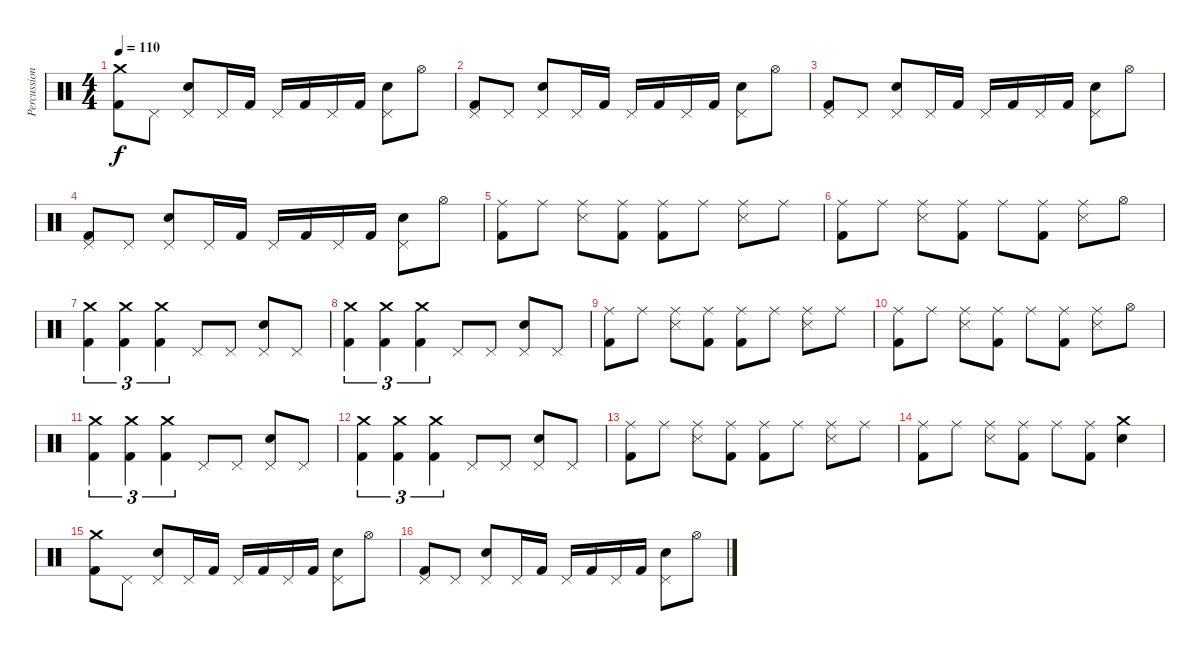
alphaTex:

\track ("Percussion" "Percussion") {instrument percussion}
\staff {score}
\articulation defaults
\ts (4 4)
\tempo 110
\clef neutral
\ks c
("Crash medium (hit)" "Kick (hit) 2").8{dy f} "Pedal Hi-Hat (hit)".8 ("Pedal Hi-Hat (hit)" "Electric Snare (hit)").8 "Pedal Hi-Hat (hit)".16 "Kick (hit) 2".16 "Pedal Hi-Hat (hit)".16 "Kick (hit) 2".16 "Pedal Hi-Hat (hit)".16 "Kick (hit) 2".16 ("Pedal Hi-Hat (hit)" "Electric Snare (hit)").8 "Hi-Hat (open)".8 |
("Pedal Hi-Hat (hit)" "Kick (hit) 2").8 "Pedal Hi-Hat (hit)".8 ("Pedal Hi-Hat (hit)" "Electric Snare (hit)").8 "Pedal Hi-Hat (hit)".16 "Kick (hit) 2".16 "Pedal Hi-Hat (hit)".16 "Kick (hit) 2".16 "Pedal Hi-Hat (hit)".16 "Kick (hit) 2".16 ("Pedal Hi-Hat (hit)" "Electric Snare (hit)").8 "Hi-Hat (open)".8 |
("Pedal Hi-Hat (hit)" "Kick (hit) 2").8 "Pedal Hi-Hat (hit)".8 ("Pedal Hi-Hat (hit)" "Electric Snare (hit)").8 "Pedal Hi-Hat (hit)".16 "Kick (hit) 2".16 "Pedal Hi-Hat (hit)".16 "Kick (hit) 2".16 "Pedal Hi-Hat (hit)".16 "Kick (hit) 2".16 ("Pedal Hi-Hat (hit)" "Electric Snare (hit)").8 "Hi-Hat (open)".8 |
("Pedal Hi-Hat (hit)" "Kick (hit) 2").8 "Pedal Hi-Hat (hit)".8 ("Pedal Hi-Hat (hit)" "Electric Snare (hit)").8 "Pedal Hi-Hat (hit)".16 "Kick (hit) 2".16 "Pedal Hi-Hat (hit)".16 "Kick (hit) 2".16 "Pedal Hi-Hat (hit)".16 "Kick (hit) 2".16 ("Pedal Hi-Hat (hit)" "Electric Snare (hit)").8 "Hi-Hat (open)".8 |
("Ride (middle)" "Kick (hit) 2").8 "Ride (middle)".8 ("Ride (middle)" "Snare (side stick) 3").8 ("Ride (middle)" "Kick (hit) 2").8 ("Ride (middle)" "Kick (hit) 2").8 "Ride (middle)".8 ("Ride (middle)" "Snare (side stick) 3").8 "Ride (middle)".8 |
("Ride (middle)" "Kick (hit) 2").8 "Ride (middle)".8 ("Ride (middle)" "Snare (side stick) 3").8 ("Ride (middle)" "Kick (hit) 2").8 "Ride (middle)".8 ("Ride (middle)" "Kick (hit) 2").8 ("Ride (middle)" "Snare (side stick) 3").8 "Hi-Hat (open)".8 |
("Crash medium (hit)" "Kick (hit) 2").4{tu (3 2)} ("Crash medium (hit)" "Kick (hit) 2").4{tu (3 2)} ("Crash medium (hit)" "Kick (hit) 2").4{tu (3 2)} "Pedal Hi-Hat (hit)".8 "Pedal Hi-Hat (hit)".8 ("Pedal Hi-Hat (hit)" "Snare (hit) 2").8 "Pedal Hi-Hat (hit)".8 |
("Crash medium (hit)" "Kick (hit) 2").4{tu (3 2)} ("Crash medium (hit)" "Kick (hit) 2").4{tu (3 2)} ("Crash medium (hit)" "Kick (hit) 2").4{tu (3 2)} "Pedal Hi-Hat (hit)".8 "Pedal Hi-Hat (hit)".8 ("Pedal Hi-Hat (hit)" "Snare (hit) 2").8 "Pedal Hi-Hat (hit)".8 |
("Ride (middle)" "Kick (hit) 2").8 "Ride (middle)".8 ("Ride (middle)" "Snare (side stick) 3").8 ("Ride (middle)" "Kick (hit) 2").8 ("Ride (middle)" "Kick (hit) 2").8 "Ride (middle)".8 ("Ride (middle)" "Snare (side stick) 3").8 "Ride (middle)".8 |
("Ride (middle)" "Kick (hit) 2").8 "Ride (middle)".8 ("Ride (middle)" "Snare (side stick) 3").8 ("Ride (middle)" "Kick (hit) 2").8 "Ride (middle)".8 ("Ride (middle)" "Kick (hit) 2").8 ("Ride (middle)" "Snare (side stick) 3").8 "Hi-Hat (open)".8 |
("Crash medium (hit)" "Kick (hit) 2").4{tu (3 2)} ("Crash medium (hit)" "Kick (hit) 2").4{tu (3 2)} ("Crash medium (hit)" "Kick (hit) 2").4{tu (3 2)} "Pedal Hi-Hat (hit)".8 "Pedal Hi-Hat (hit)".8 ("Pedal Hi-Hat (hit)" "Snare (hit) 2").8 "Pedal Hi-Hat (hit)".8 |
("Crash medium (hit)" "Kick (hit) 2").4{tu (3 2)} ("Crash medium (hit)" "Kick (hit) 2").4{tu (3 2)} ("Crash medium (hit)" "Kick (hit) 2").4{tu (3 2)} "Pedal Hi-Hat (hit)".8 "Pedal Hi-Hat (hit)".8 ("Pedal Hi-Hat (hit)" "Snare (hit) 2").8 "Pedal Hi-Hat (hit)".8 |
("Ride (middle)" "Kick (hit) 2").8 "Ride (middle)".8 ("Ride (middle)" "Snare (side stick) 3").8 ("Ride (middle)" "Kick (hit) 2").8 ("Ride (middle)" "Kick (hit) 2").8 "Ride (middle)".8 ("Ride (middle)" "Snare (side stick) 3").8 "Ride (middle)".8 |
("Ride (middle)" "Kick (hit) 2").8 "Ride (middle)".8 ("Ride (middle)" "Snare (side stick) 3").8 ("Ride (middle)" "Kick (hit) 2").8 "Ride (middle)".8 ("Ride (middle)" "Kick (hit) 2").8 ("Crash medium (hit)" "Snare (hit) 2").4 |
("Crash medium (hit)" "Kick (hit) 2").8 "Pedal Hi-Hat (hit)".8 ("Pedal Hi-Hat (hit)" "Electric Snare (hit)").8 "Pedal Hi-Hat (hit)".16 "Kick (hit) 2".16 "Pedal Hi-Hat (hit)".16 "Kick (hit) 2".16 "Pedal Hi-Hat (hit)".16 "Kick (hit) 2".16 ("Pedal Hi-Hat (hit)" "Electric Snare (hit)").8 "Hi-Hat (open)".8 |
("Pedal Hi-Hat (hit)" "Kick (hit) 2").8 "Pedal Hi-Hat (hit)".8 ("Pedal Hi-Hat (hit)" "Electric Snare (hit)").8 "Pedal Hi-Hat (hit)".16 "Kick (hit) 2".16 "Pedal Hi-Hat (hit)".16 "Kick (hit) 2".16 "Pedal Hi-Hat (hit)".16 "Kick (hit) 2".16 ("Pedal Hi-Hat (hit)" "Electric Snare (hit)").8 "Hi-Hat (open)".8
